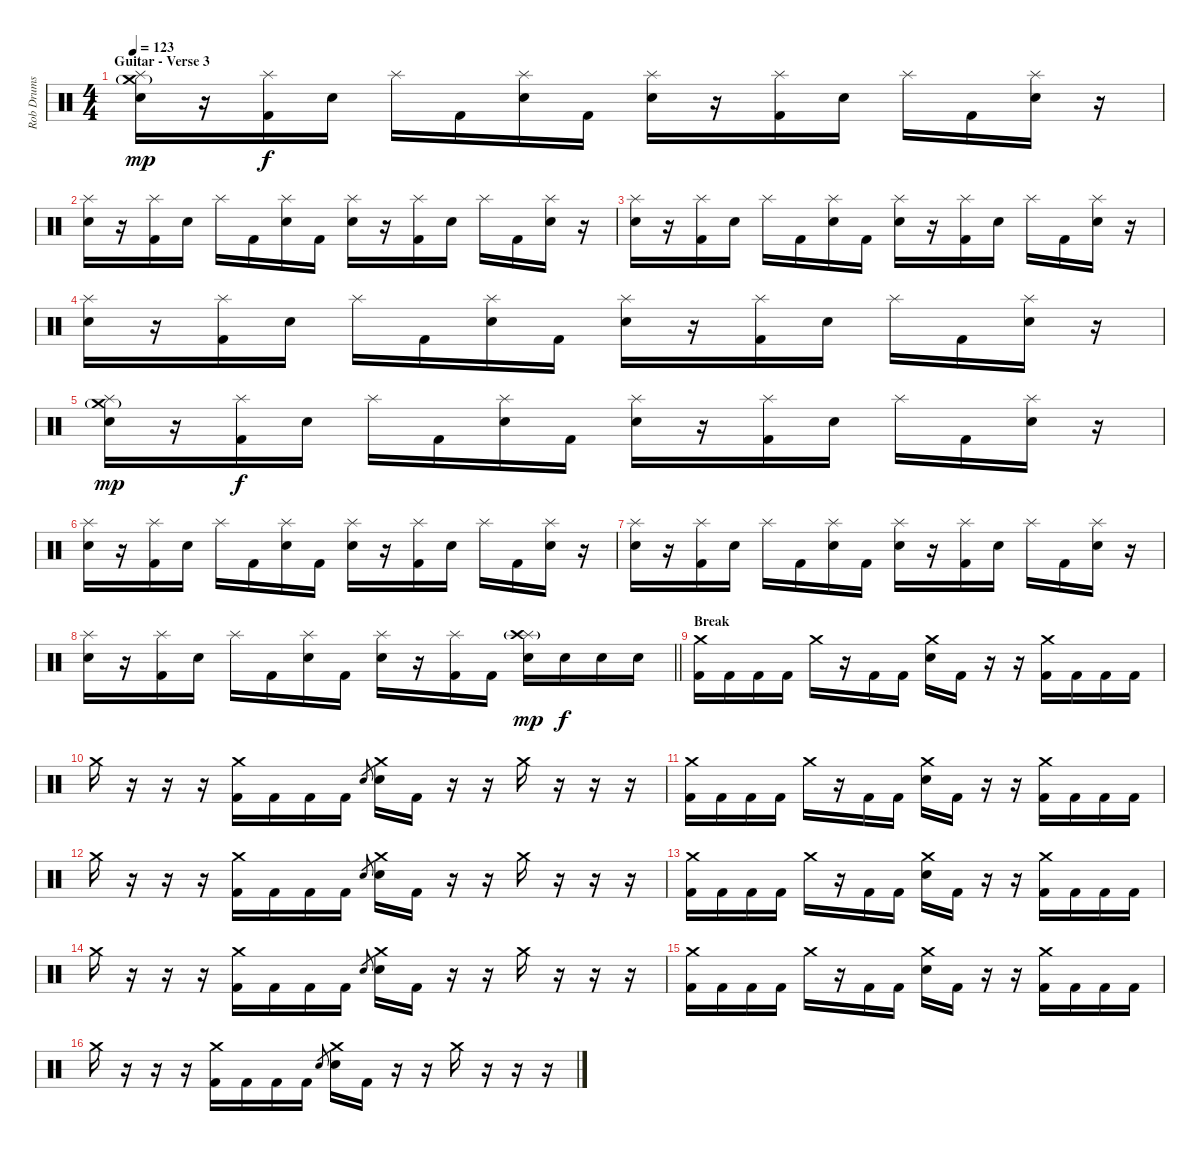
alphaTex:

\track ("Rob Drums" "Rob Drums") {instrument percussion}
\staff {score}
\articulation defaults
\ts (4 4)
\section ("" "Guitar - Verse 3")
\tempo 123
\clef neutral
\ks c
("Splash (hit)" "Crash medium (hit)"{g} "Electric Snare (hit)").16{dy mp} r.16 ("Splash (hit)" "Kick (hit) 2").16{dy f} "Electric Snare (hit)".16 "Splash (hit)".16 "Kick (hit) 2".16 ("Splash (hit)" "Electric Snare (hit)").16 "Kick (hit) 2".16 ("Splash (hit)" "Electric Snare (hit)").16 r.16 ("Splash (hit)" "Kick (hit) 2").16 "Electric Snare (hit)".16 "Splash (hit)".16 "Kick (hit) 2".16 ("Splash (hit)" "Electric Snare (hit)").16 r.16 |
("Splash (hit)" "Electric Snare (hit)").16 r.16 ("Splash (hit)" "Kick (hit) 2").16 "Electric Snare (hit)".16 "Splash (hit)".16 "Kick (hit) 2".16 ("Splash (hit)" "Electric Snare (hit)").16 "Kick (hit) 2".16 ("Splash (hit)" "Electric Snare (hit)").16 r.16 ("Splash (hit)" "Kick (hit) 2").16 "Electric Snare (hit)".16 "Splash (hit)".16 "Kick (hit) 2".16 ("Splash (hit)" "Electric Snare (hit)").16 r.16 |
("Splash (hit)" "Electric Snare (hit)").16 r.16 ("Splash (hit)" "Kick (hit) 2").16 "Electric Snare (hit)".16 "Splash (hit)".16 "Kick (hit) 2".16 ("Splash (hit)" "Electric Snare (hit)").16 "Kick (hit) 2".16 ("Splash (hit)" "Electric Snare (hit)").16 r.16 ("Splash (hit)" "Kick (hit) 2").16 "Electric Snare (hit)".16 "Splash (hit)".16 "Kick (hit) 2".16 ("Splash (hit)" "Electric Snare (hit)").16 r.16 |
("Splash (hit)" "Electric Snare (hit)").16 r.16 ("Splash (hit)" "Kick (hit) 2").16 "Electric Snare (hit)".16 "Splash (hit)".16 "Kick (hit) 2".16 ("Splash (hit)" "Electric Snare (hit)").16 "Kick (hit) 2".16 ("Splash (hit)" "Electric Snare (hit)").16 r.16 ("Splash (hit)" "Kick (hit) 2").16 "Electric Snare (hit)".16 "Splash (hit)".16 "Kick (hit) 2".16 ("Splash (hit)" "Electric Snare (hit)").16 r.16 |
("Splash (hit)" "Crash medium (hit)"{g} "Electric Snare (hit)").16{dy mp} r.16 ("Splash (hit)" "Kick (hit) 2").16{dy f} "Electric Snare (hit)".16 "Splash (hit)".16 "Kick (hit) 2".16 ("Splash (hit)" "Electric Snare (hit)").16 "Kick (hit) 2".16 ("Splash (hit)" "Electric Snare (hit)").16 r.16 ("Splash (hit)" "Kick (hit) 2").16 "Electric Snare (hit)".16 "Splash (hit)".16 "Kick (hit) 2".16 ("Splash (hit)" "Electric Snare (hit)").16 r.16 |
("Splash (hit)" "Electric Snare (hit)").16 r.16 ("Splash (hit)" "Kick (hit) 2").16 "Electric Snare (hit)".16 "Splash (hit)".16 "Kick (hit) 2".16 ("Splash (hit)" "Electric Snare (hit)").16 "Kick (hit) 2".16 ("Splash (hit)" "Electric Snare (hit)").16 r.16 ("Splash (hit)" "Kick (hit) 2").16 "Electric Snare (hit)".16 "Splash (hit)".16 "Kick (hit) 2".16 ("Splash (hit)" "Electric Snare (hit)").16 r.16 |
("Splash (hit)" "Electric Snare (hit)").16 r.16 ("Splash (hit)" "Kick (hit) 2").16 "Electric Snare (hit)".16 "Splash (hit)".16 "Kick (hit) 2".16 ("Splash (hit)" "Electric Snare (hit)").16 "Kick (hit) 2".16 ("Splash (hit)" "Electric Snare (hit)").16 r.16 ("Splash (hit)" "Kick (hit) 2").16 "Electric Snare (hit)".16 "Splash (hit)".16 "Kick (hit) 2".16 ("Splash (hit)" "Electric Snare (hit)").16 r.16 |
\barLineRight lightlight
("Splash (hit)" "Electric Snare (hit)").16 r.16 ("Splash (hit)" "Kick (hit) 2").16 "Electric Snare (hit)".16 "Splash (hit)".16 "Kick (hit) 2".16 ("Splash (hit)" "Electric Snare (hit)").16 "Kick (hit) 2".16 ("Splash (hit)" "Electric Snare (hit)").16 r.16 ("Splash (hit)" "Kick (hit) 2").16 "Kick (hit) 2".16 ("Splash (hit)" "Crash high (hit)"{g} "Electric Snare (hit)").16{dy mp} "Electric Snare (hit)".16{dy f} "Electric Snare (hit)".16 "Electric Snare (hit)".16 |
\section ("" "Break")
("Crash medium (hit)" "Kick (hit) 2").16 "Kick (hit) 2".16 "Kick (hit) 2".16 "Kick (hit) 2".16 "Crash medium (hit)".16 r.16 "Kick (hit) 2".16 "Kick (hit) 2".16 ("Crash medium (hit)" "Electric Snare (hit)").16 "Kick (hit) 2".16 r.16 r.16 ("Crash medium (hit)" "Kick (hit) 2").16 "Kick (hit) 2".16 "Kick (hit) 2".16 "Kick (hit) 2".16 |
"Crash medium (hit)".16 r.16 r.16 r.16 ("Crash medium (hit)" "Kick (hit) 2").16 "Kick (hit) 2".16 "Kick (hit) 2".16 "Kick (hit) 2".16 "Electric Snare (hit)".8{gr} ("Crash medium (hit)" "Electric Snare (hit)").16 "Kick (hit) 2".16 r.16 r.16 "Crash medium (hit)".16 r.16 r.16 r.16 |
("Crash medium (hit)" "Kick (hit) 2").16 "Kick (hit) 2".16 "Kick (hit) 2".16 "Kick (hit) 2".16 "Crash medium (hit)".16 r.16 "Kick (hit) 2".16 "Kick (hit) 2".16 ("Crash medium (hit)" "Electric Snare (hit)").16 "Kick (hit) 2".16 r.16 r.16 ("Crash medium (hit)" "Kick (hit) 2").16 "Kick (hit) 2".16 "Kick (hit) 2".16 "Kick (hit) 2".16 |
"Crash medium (hit)".16 r.16 r.16 r.16 ("Crash medium (hit)" "Kick (hit) 2").16 "Kick (hit) 2".16 "Kick (hit) 2".16 "Kick (hit) 2".16 "Electric Snare (hit)".8{gr} ("Crash medium (hit)" "Electric Snare (hit)").16 "Kick (hit) 2".16 r.16 r.16 "Crash medium (hit)".16 r.16 r.16 r.16 |
("Crash medium (hit)" "Kick (hit) 2").16 "Kick (hit) 2".16 "Kick (hit) 2".16 "Kick (hit) 2".16 "Crash medium (hit)".16 r.16 "Kick (hit) 2".16 "Kick (hit) 2".16 ("Crash medium (hit)" "Electric Snare (hit)").16 "Kick (hit) 2".16 r.16 r.16 ("Crash medium (hit)" "Kick (hit) 2").16 "Kick (hit) 2".16 "Kick (hit) 2".16 "Kick (hit) 2".16 |
"Crash medium (hit)".16 r.16 r.16 r.16 ("Crash medium (hit)" "Kick (hit) 2").16 "Kick (hit) 2".16 "Kick (hit) 2".16 "Kick (hit) 2".16 "Electric Snare (hit)".8{gr} ("Crash medium (hit)" "Electric Snare (hit)").16 "Kick (hit) 2".16 r.16 r.16 "Crash medium (hit)".16 r.16 r.16 r.16 |
("Crash medium (hit)" "Kick (hit) 2").16 "Kick (hit) 2".16 "Kick (hit) 2".16 "Kick (hit) 2".16 "Crash medium (hit)".16 r.16 "Kick (hit) 2".16 "Kick (hit) 2".16 ("Crash medium (hit)" "Electric Snare (hit)").16 "Kick (hit) 2".16 r.16 r.16 ("Crash medium (hit)" "Kick (hit) 2").16 "Kick (hit) 2".16 "Kick (hit) 2".16 "Kick (hit) 2".16 |
"Crash medium (hit)".16 r.16 r.16 r.16 ("Crash medium (hit)" "Kick (hit) 2").16 "Kick (hit) 2".16 "Kick (hit) 2".16 "Kick (hit) 2".16 "Electric Snare (hit)".8{gr} ("Crash medium (hit)" "Electric Snare (hit)").16 "Kick (hit) 2".16 r.16 r.16 "Crash medium (hit)".16 r.16 r.16 r.16
